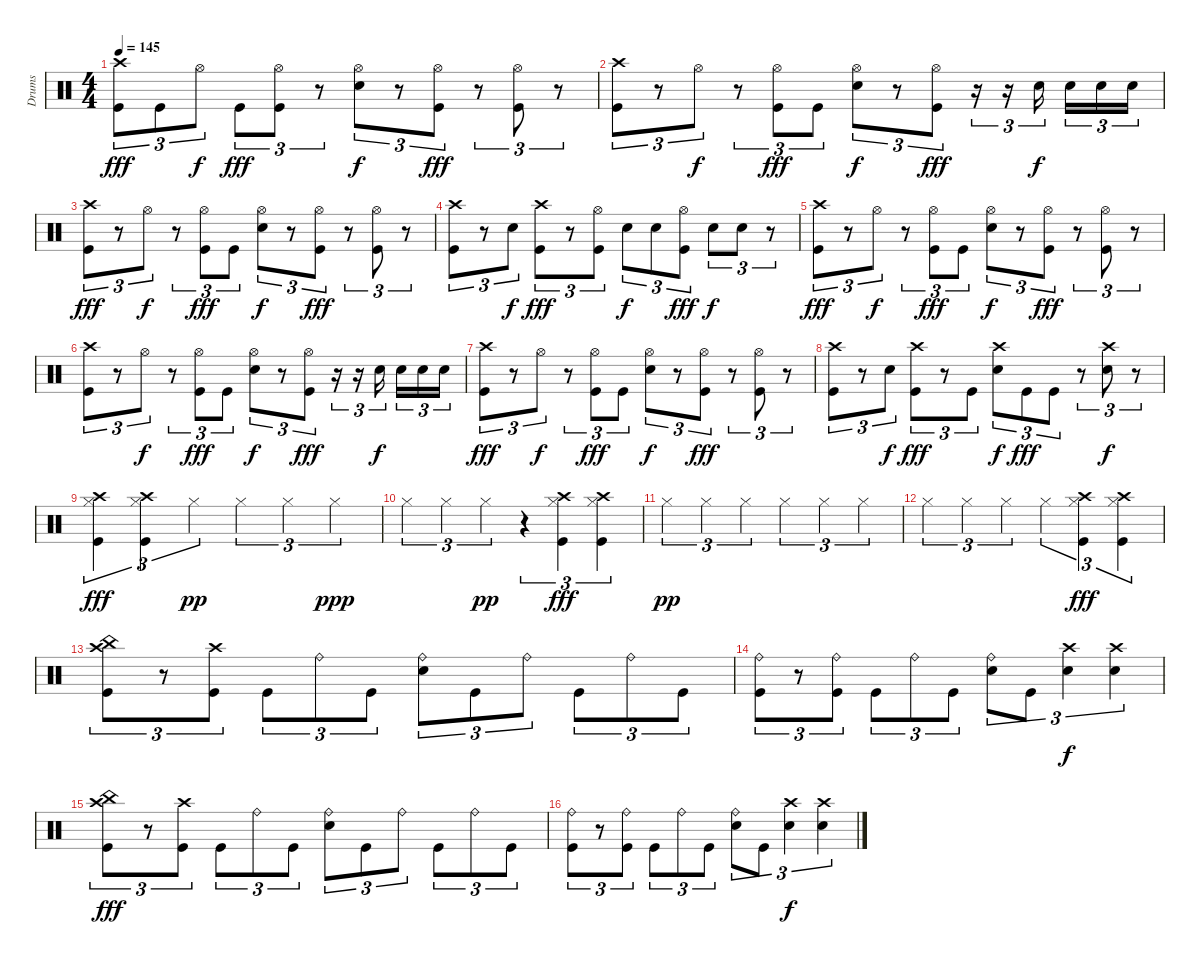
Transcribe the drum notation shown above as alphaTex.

\track ("Drums" "Drums") {instrument percussion}
\staff {score}
\articulation defaults
\ts (4 4)
\tempo 145
\clef neutral
\ks c
("Crash high (hit)" "Kick (hit)").8{tu (3 2) dy fff} "Kick (hit)".8{tu (3 2)} "Hi-Hat (open)".8{tu (3 2) dy f} "Kick (hit)".8{tu (3 2) dy fff} ("Hi-Hat (open)" "Kick (hit)").8{tu (3 2)} r.8{tu (3 2)} ("Hi-Hat (open)" "Electric Snare (hit)").8{tu (3 2) dy f} r.8{tu (3 2)} ("Hi-Hat (open)" "Kick (hit)").8{tu (3 2) dy fff} r.8{tu (3 2)} ("Hi-Hat (open)" "Kick (hit)").8{tu (3 2)} r.8{tu (3 2)} |
("Crash high (hit)" "Kick (hit)").8{tu (3 2)} r.8{tu (3 2)} "Hi-Hat (open)".8{tu (3 2) dy f} r.8{tu (3 2)} ("Hi-Hat (open)" "Kick (hit)").8{tu (3 2) dy fff} "Kick (hit)".8{tu (3 2)} ("Hi-Hat (open)" "Electric Snare (hit)").8{tu (3 2) dy f} r.8{tu (3 2)} ("Hi-Hat (open)" "Kick (hit)").8{tu (3 2) dy fff} r.16{tu (3 2)} r.16{tu (3 2)} "Electric Snare (hit)".16{tu (3 2) dy f} "Electric Snare (hit)".16{tu (3 2)} "Electric Snare (hit)".16{tu (3 2)} "Electric Snare (hit)".16{tu (3 2)} |
("Crash high (hit)" "Kick (hit)").8{tu (3 2) dy fff} r.8{tu (3 2)} "Hi-Hat (open)".8{tu (3 2) dy f} r.8{tu (3 2)} ("Hi-Hat (open)" "Kick (hit)").8{tu (3 2) dy fff} "Kick (hit)".8{tu (3 2)} ("Hi-Hat (open)" "Electric Snare (hit)").8{tu (3 2) dy f} r.8{tu (3 2)} ("Hi-Hat (open)" "Kick (hit)").8{tu (3 2) dy fff} r.8{tu (3 2)} ("Hi-Hat (open)" "Kick (hit)").8{tu (3 2)} r.8{tu (3 2)} |
("Crash high (hit)" "Kick (hit)").8{tu (3 2)} r.8{tu (3 2)} "Electric Snare (hit)".8{tu (3 2) dy f} ("Crash high (hit)" "Kick (hit)").8{tu (3 2) dy fff} r.8{tu (3 2)} ("Hi-Hat (open)" "Kick (hit)").8{tu (3 2)} "Electric Snare (hit)".8{tu (3 2) dy f} "Electric Snare (hit)".8{tu (3 2)} ("Hi-Hat (open)" "Kick (hit)").8{tu (3 2) dy fff} "Electric Snare (hit)".8{tu (3 2) dy f} "Electric Snare (hit)".8{tu (3 2)} r.8{tu (3 2)} |
("Crash high (hit)" "Kick (hit)").8{tu (3 2) dy fff} r.8{tu (3 2)} "Hi-Hat (open)".8{tu (3 2) dy f} r.8{tu (3 2)} ("Hi-Hat (open)" "Kick (hit)").8{tu (3 2) dy fff} "Kick (hit)".8{tu (3 2)} ("Hi-Hat (open)" "Electric Snare (hit)").8{tu (3 2) dy f} r.8{tu (3 2)} ("Hi-Hat (open)" "Kick (hit)").8{tu (3 2) dy fff} r.8{tu (3 2)} ("Hi-Hat (open)" "Kick (hit)").8{tu (3 2)} r.8{tu (3 2)} |
("Crash high (hit)" "Kick (hit)").8{tu (3 2)} r.8{tu (3 2)} "Hi-Hat (open)".8{tu (3 2) dy f} r.8{tu (3 2)} ("Hi-Hat (open)" "Kick (hit)").8{tu (3 2) dy fff} "Kick (hit)".8{tu (3 2)} ("Hi-Hat (open)" "Electric Snare (hit)").8{tu (3 2) dy f} r.8{tu (3 2)} ("Hi-Hat (open)" "Kick (hit)").8{tu (3 2) dy fff} r.16{tu (3 2)} r.16{tu (3 2)} "Electric Snare (hit)".16{tu (3 2) dy f} "Electric Snare (hit)".16{tu (3 2)} "Electric Snare (hit)".16{tu (3 2)} "Electric Snare (hit)".16{tu (3 2)} |
("Crash high (hit)" "Kick (hit)").8{tu (3 2) dy fff} r.8{tu (3 2)} "Hi-Hat (open)".8{tu (3 2) dy f} r.8{tu (3 2)} ("Hi-Hat (open)" "Kick (hit)").8{tu (3 2) dy fff} "Kick (hit)".8{tu (3 2)} ("Hi-Hat (open)" "Electric Snare (hit)").8{tu (3 2) dy f} r.8{tu (3 2)} ("Hi-Hat (open)" "Kick (hit)").8{tu (3 2) dy fff} r.8{tu (3 2)} ("Hi-Hat (open)" "Kick (hit)").8{tu (3 2)} r.8{tu (3 2)} |
("Crash high (hit)" "Kick (hit)").8{tu (3 2)} r.8{tu (3 2)} "Electric Snare (hit)".8{tu (3 2) dy f} ("Crash high (hit)" "Kick (hit)").8{tu (3 2) dy fff} r.8{tu (3 2)} "Kick (hit)".8{tu (3 2)} ("Crash high (hit)" "Electric Snare (hit)").8{tu (3 2) dy f} "Kick (hit)".8{tu (3 2) dy fff} "Kick (hit)".8{tu (3 2)} r.8{tu (3 2)} ("Crash high (hit)" "Electric Snare (hit)").8{tu (3 2) dy f} r.8{tu (3 2)} |
("Crash high (hit)" "Hi-Hat (closed)" "Kick (hit)").4{tu (3 2) dy fff} ("Crash high (hit)" "Hi-Hat (closed)" "Kick (hit)").4{tu (3 2)} "Hi-Hat (closed)".4{tu (3 2) dy pp} "Hi-Hat (closed)".4{tu (3 2)} "Hi-Hat (closed)".4{tu (3 2)} "Hi-Hat (closed)".4{tu (3 2) dy ppp} |
"Hi-Hat (closed)".4{tu (3 2)} "Hi-Hat (closed)".4{tu (3 2)} "Hi-Hat (closed)".4{tu (3 2) dy pp} r.4{tu (3 2)} ("Crash high (hit)" "Hi-Hat (closed)" "Kick (hit)").4{tu (3 2) dy fff} ("Crash high (hit)" "Hi-Hat (closed)" "Kick (hit)").4{tu (3 2)} |
"Hi-Hat (closed)".4{tu (3 2) dy pp} "Hi-Hat (closed)".4{tu (3 2)} "Hi-Hat (closed)".4{tu (3 2)} "Hi-Hat (closed)".4{tu (3 2)} "Hi-Hat (closed)".4{tu (3 2)} "Hi-Hat (closed)".4{tu (3 2)} |
"Hi-Hat (closed)".4{tu (3 2)} "Hi-Hat (closed)".4{tu (3 2)} "Hi-Hat (closed)".4{tu (3 2)} "Hi-Hat (closed)".4{tu (3 2)} ("Crash high (hit)" "Hi-Hat (closed)" "Kick (hit)").4{tu (3 2) dy fff} ("Crash high (hit)" "Hi-Hat (closed)" "Kick (hit)").4{tu (3 2)} |
("Crash high (hit)" "China (hit)" "Kick (hit)").8{tu (3 2)} r.8{tu (3 2)} ("Crash high (hit)" "Kick (hit)").8{tu (3 2)} "Kick (hit)".8{tu (3 2)} "Ride (bell)".8{tu (3 2)} "Kick (hit)".8{tu (3 2)} ("Ride (bell)" "Electric Snare (hit)").8{tu (3 2)} "Kick (hit)".8{tu (3 2)} "Ride (bell)".8{tu (3 2)} "Kick (hit)".8{tu (3 2)} "Ride (bell)".8{tu (3 2)} "Kick (hit)".8{tu (3 2)} |
("Ride (bell)" "Kick (hit)").8{tu (3 2)} r.8{tu (3 2)} ("Ride (bell)" "Kick (hit)").8{tu (3 2)} "Kick (hit)".8{tu (3 2)} "Ride (bell)".8{tu (3 2)} "Kick (hit)".8{tu (3 2)} ("Ride (bell)" "Electric Snare (hit)").8{tu (3 2)} "Kick (hit)".8{tu (3 2)} ("Crash high (hit)" "Electric Snare (hit)").4{tu (3 2) dy f} ("Crash high (hit)" "Electric Snare (hit)").4{tu (3 2)} |
("Crash high (hit)" "China (hit)" "Kick (hit)").8{tu (3 2) dy fff} r.8{tu (3 2)} ("Crash high (hit)" "Kick (hit)").8{tu (3 2)} "Kick (hit)".8{tu (3 2)} "Ride (bell)".8{tu (3 2)} "Kick (hit)".8{tu (3 2)} ("Ride (bell)" "Electric Snare (hit)").8{tu (3 2)} "Kick (hit)".8{tu (3 2)} "Ride (bell)".8{tu (3 2)} "Kick (hit)".8{tu (3 2)} "Ride (bell)".8{tu (3 2)} "Kick (hit)".8{tu (3 2)} |
("Ride (bell)" "Kick (hit)").8{tu (3 2)} r.8{tu (3 2)} ("Ride (bell)" "Kick (hit)").8{tu (3 2)} "Kick (hit)".8{tu (3 2)} "Ride (bell)".8{tu (3 2)} "Kick (hit)".8{tu (3 2)} ("Ride (bell)" "Electric Snare (hit)").8{tu (3 2)} "Kick (hit)".8{tu (3 2)} ("Crash high (hit)" "Electric Snare (hit)").4{tu (3 2) dy f} ("Crash high (hit)" "Electric Snare (hit)").4{tu (3 2)}
